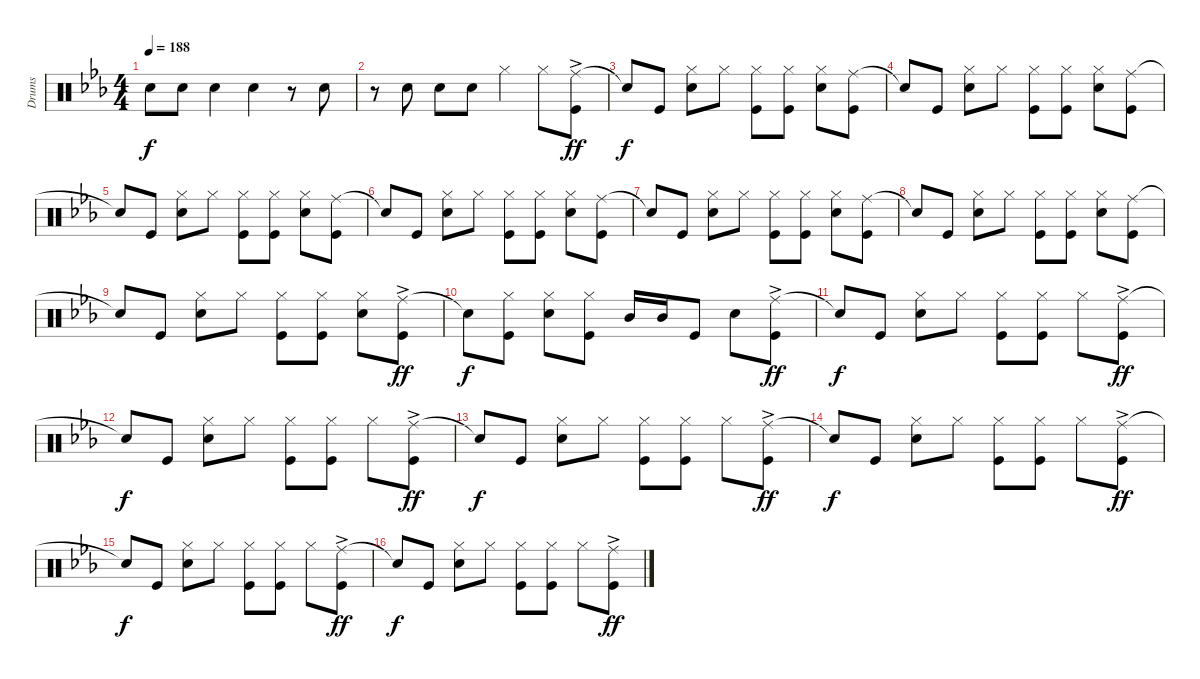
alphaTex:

\track ("Drums" "Drums") {instrument percussion}
\staff {score}
\articulation defaults
\ts (4 4)
\tempo 188
\clef neutral
\ks eb "Snare (hit)"{t}.8{dy f} "Snare (hit) 2".8 "Snare (hit) 2".4 "Snare (hit) 2".4
r.8 "Snare (hit) 2".8 |
r.8 "Snare (hit) 2".8 "Snare (hit) 2".8 "Snare (hit) 2".8 "Hi-Hat (closed)".4 "Hi-Hat (closed)".8 ("Ride (middle)"{ac} "Kick (hit)").8{dy ff} |
"Snare (hit)"{t}.8{dy f} "Kick (hit)".8 ("Hi-Hat (closed)" "Snare (hit) 2").8 "Hi-Hat (closed)".8 ("Hi-Hat (closed)" "Kick (hit)").8 ("Hi-Hat (closed)" "Kick (hit)").8 ("Hi-Hat (closed)" "Snare (hit) 2").8 ("Ride (middle)" "Kick (hit)").8 |
"Snare (hit)"{t}.8 "Kick (hit)".8 ("Hi-Hat (closed)" "Snare (hit) 2").8 "Hi-Hat (closed)".8 ("Hi-Hat (closed)" "Kick (hit)").8 ("Hi-Hat (closed)" "Kick (hit)").8 ("Hi-Hat (closed)" "Snare (hit) 2").8 ("Ride (middle)" "Kick (hit)").8 |
"Snare (hit)"{t}.8 "Kick (hit)".8 ("Hi-Hat (closed)" "Snare (hit) 2").8 "Hi-Hat (closed)".8 ("Hi-Hat (closed)" "Kick (hit)").8 ("Hi-Hat (closed)" "Kick (hit)").8 ("Hi-Hat (closed)" "Snare (hit) 2").8 ("Ride (middle)" "Kick (hit)").8 |
"Snare (hit)"{t}.8 "Kick (hit)".8 ("Hi-Hat (closed)" "Snare (hit) 2").8 "Hi-Hat (closed)".8 ("Hi-Hat (closed)" "Kick (hit)").8 ("Hi-Hat (closed)" "Kick (hit)").8 ("Hi-Hat (closed)" "Snare (hit) 2").8 ("Ride (middle)" "Kick (hit)").8 |
"Snare (hit)"{t}.8 "Kick (hit)".8 ("Hi-Hat (closed)" "Snare (hit) 2").8 "Hi-Hat (closed)".8 ("Hi-Hat (closed)" "Kick (hit)").8 ("Hi-Hat (closed)" "Kick (hit)").8 ("Hi-Hat (closed)" "Snare (hit) 2").8 ("Ride (middle)" "Kick (hit)").8 |
"Snare (hit)"{t}.8 "Kick (hit)".8 ("Hi-Hat (closed)" "Snare (hit) 2").8 "Hi-Hat (closed)".8 ("Hi-Hat (closed)" "Kick (hit)").8 ("Hi-Hat (closed)" "Kick (hit)").8 ("Hi-Hat (closed)" "Snare (hit) 2").8 ("Ride (middle)" "Kick (hit)").8 |
"Snare (hit)"{t}.8 "Kick (hit)".8 ("Hi-Hat (closed)" "Snare (hit) 2").8 "Hi-Hat (closed)".8 ("Hi-Hat (closed)" "Kick (hit)").8 ("Hi-Hat (closed)" "Kick (hit)").8 ("Hi-Hat (closed)" "Snare (hit) 2").8 ("Ride (middle)"{ac} "Kick (hit)").8{dy ff} |
"Snare (hit)"{t}.8{dy f} ("Hi-Hat (closed)" "Kick (hit)").8 ("Hi-Hat (closed)" "Snare (hit) 2").8 ("Hi-Hat (closed)" "Kick (hit)").8 "Mid Tom (hit)".16 "Mid Tom (hit)".16 "Kick (hit)".8 "Snare (hit) 2".8 ("Ride (middle)"{ac} "Kick (hit)").8{dy ff} |
"Snare (hit)"{t}.8{dy f} "Kick (hit)".8 ("Hi-Hat (closed)" "Snare (hit) 2").8 "Hi-Hat (closed)".8 ("Hi-Hat (closed)" "Kick (hit)").8 ("Hi-Hat (closed)" "Kick (hit)").8 "Hi-Hat (closed)".8 ("Ride (middle)"{ac} "Kick (hit)").8{dy ff} |
"Snare (hit)"{t}.8{dy f} "Kick (hit)".8 ("Hi-Hat (closed)" "Snare (hit) 2").8 "Hi-Hat (closed)".8 ("Hi-Hat (closed)" "Kick (hit)").8 ("Hi-Hat (closed)" "Kick (hit)").8 "Hi-Hat (closed)".8 ("Ride (middle)"{ac} "Kick (hit)").8{dy ff} |
"Snare (hit)"{t}.8{dy f} "Kick (hit)".8 ("Hi-Hat (closed)" "Snare (hit) 2").8 "Hi-Hat (closed)".8 ("Hi-Hat (closed)" "Kick (hit)").8 ("Hi-Hat (closed)" "Kick (hit)").8 "Hi-Hat (closed)".8 ("Ride (middle)"{ac} "Kick (hit)").8{dy ff} |
"Snare (hit)"{t}.8{dy f} "Kick (hit)".8 ("Hi-Hat (closed)" "Snare (hit) 2").8 "Hi-Hat (closed)".8 ("Hi-Hat (closed)" "Kick (hit)").8 ("Hi-Hat (closed)" "Kick (hit)").8 "Hi-Hat (closed)".8 ("Ride (middle)"{ac} "Kick (hit)").8{dy ff} |
"Snare (hit)"{t}.8{dy f} "Kick (hit)".8 ("Hi-Hat (closed)" "Snare (hit) 2").8 "Hi-Hat (closed)".8 ("Hi-Hat (closed)" "Kick (hit)").8 ("Hi-Hat (closed)" "Kick (hit)").8 "Hi-Hat (closed)".8 ("Ride (middle)"{ac} "Kick (hit)").8{dy ff} |
"Snare (hit)"{t}.8{dy f} "Kick (hit)".8 ("Hi-Hat (closed)" "Snare (hit) 2").8 "Hi-Hat (closed)".8 ("Hi-Hat (closed)" "Kick (hit)").8 ("Hi-Hat (closed)" "Kick (hit)").8 "Hi-Hat (closed)".8 ("Ride (middle)"{ac} "Kick (hit)").8{dy ff}
